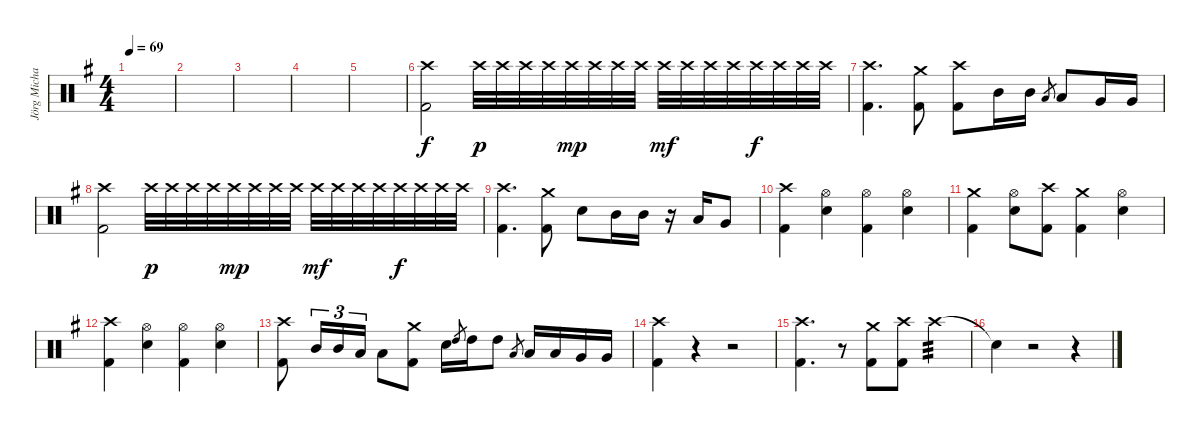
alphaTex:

\track ("Jörg Michael" "Jörg Micha") {instrument percussion}
\staff {score}
\articulation defaults
\ts (4 4)
\tempo 69
\clef neutral
\ks g
|
|
|
|
|
("Crash high (hit)" "Kick (hit) 2").2 "Crash high (hit)".32{dy p} "Crash high (hit)".32 "Crash high (hit)".32 "Crash high (hit)".32 "Crash high (hit)".32{dy mp} "Crash high (hit)".32 "Crash high (hit)".32 "Crash high (hit)".32 "Crash high (hit)".32{dy mf} "Crash high (hit)".32 "Crash high (hit)".32 "Crash high (hit)".32 "Crash high (hit)".32{dy f} "Crash high (hit)".32 "Crash high (hit)".32 "Crash high (hit)".32 |
("Crash high (hit)" "Kick (hit) 2").4{d} ("Crash medium (hit)" "Kick (hit) 2").8 ("Crash high (hit)" "Kick (hit) 2").8 "Mid Tom (hit)".16 "Mid Tom (hit)".16 "Low Tom (hit)".8{gr} "Low Tom (hit)".8 "Very Low Tom (hit)".16 "Very Low Tom (hit)".16 |
("Crash high (hit)" "Kick (hit) 2").2 "Crash high (hit)".32{dy p} "Crash high (hit)".32 "Crash high (hit)".32 "Crash high (hit)".32 "Crash high (hit)".32{dy mp} "Crash high (hit)".32 "Crash high (hit)".32 "Crash high (hit)".32 "Crash high (hit)".32{dy mf} "Crash high (hit)".32 "Crash high (hit)".32 "Crash high (hit)".32 "Crash high (hit)".32{dy f} "Crash high (hit)".32 "Crash high (hit)".32 "Crash high (hit)".32 |
("Crash high (hit)" "Kick (hit) 2").4{d} ("Crash medium (hit)" "Kick (hit) 2").8 "Electric Snare (hit)".8 "Mid Tom (hit)".16 "Mid Tom (hit)".16 r.16 "Low Tom (hit)".16 "Very Low Tom (hit)".8 |
("Crash high (hit)" "Kick (hit) 2").4 ("Hi-Hat (open)" "Electric Snare (hit)").4 ("Hi-Hat (open)" "Kick (hit) 2").4 ("Hi-Hat (open)" "Electric Snare (hit)").4 |
("Crash medium (hit)" "Kick (hit) 2").4 ("Electric Snare (hit)" "Hi-Hat (open)").8 ("Crash high (hit)" "Kick (hit) 2").8 ("Crash medium (hit)" "Kick (hit) 2").4 ("Electric Snare (hit)" "Hi-Hat (open)").4 |
("Crash high (hit)" "Kick (hit) 2").4 ("Hi-Hat (open)" "Electric Snare (hit)").4 ("Hi-Hat (open)" "Kick (hit) 2").4 ("Hi-Hat (open)" "Electric Snare (hit)").4 |
("Crash high (hit)" "Kick (hit) 2").8 "Mid Tom (hit)".16{tu (3 2)} "Mid Tom (hit)".16{tu (3 2)} "Low Tom (hit)".16{tu (3 2)} "Low Tom (hit)".8 ("Crash medium (hit)" "Kick (hit) 2").8 "Electric Snare (hit)".16 "High Tom (hit)".8{gr} "High Tom (hit)".16 "High Tom (hit)".8 "Low Tom (hit)".8{gr} "Low Tom (hit)".16 "Low Tom (hit)".16 "Very Low Tom (hit)".16 "Very Low Tom (hit)".16 |
("Crash high (hit)" "Kick (hit) 2").4 r.4 r.2 |
("Crash high (hit)" "Kick (hit) 2").4{d} r.8 ("Crash medium (hit)" "Kick (hit) 2").8 ("Crash high (hit)" "Kick (hit) 2").8 "Crash high (hit)".4{tp 3} |
"Snare (hit)"{t}.4 r.2 r.4
